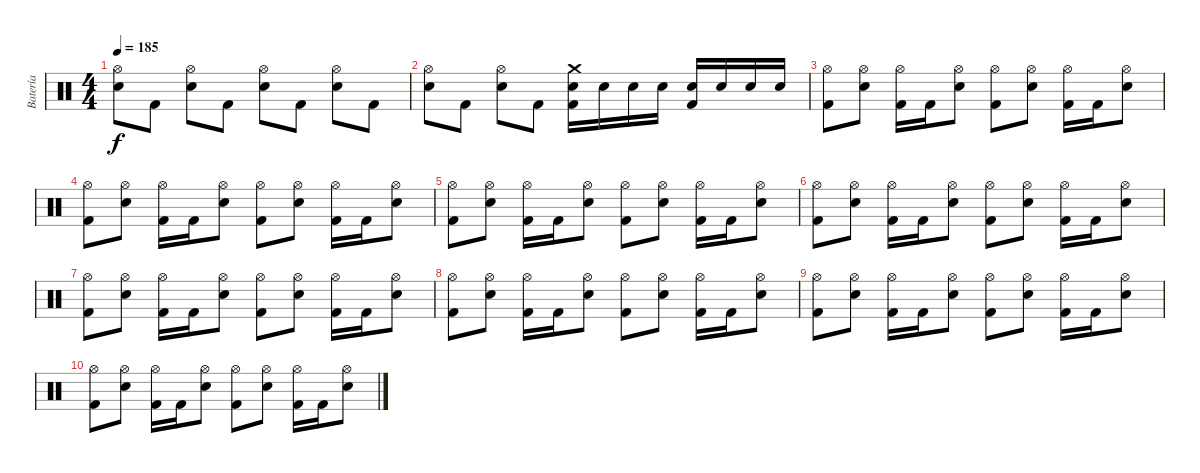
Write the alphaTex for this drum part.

\track ("Batería" "Batería") {instrument percussion}
\staff {score}
\articulation defaults
\ts (4 4)
\tempo 185
\clef neutral
\ks c
("Hi-Hat (open)" "Electric Snare (hit)").8{dy f} "Kick (hit) 2".8 ("Hi-Hat (open)" "Electric Snare (hit)").8 "Kick (hit) 2".8 ("Hi-Hat (open)" "Electric Snare (hit)").8 "Kick (hit) 2".8 ("Hi-Hat (open)" "Electric Snare (hit)").8 "Kick (hit) 2".8 |
("Hi-Hat (open)" "Electric Snare (hit)").8 "Kick (hit) 2".8 ("Hi-Hat (open)" "Electric Snare (hit)").8 "Kick (hit) 2".8 ("Crash medium (hit)" "Electric Snare (hit)" "Kick (hit) 2").16 "Electric Snare (hit)".16 "Electric Snare (hit)".16 "Electric Snare (hit)".16 ("Electric Snare (hit)" "Kick (hit) 2").16 "Electric Snare (hit)".16 "Electric Snare (hit)".16 "Electric Snare (hit)".16 |
("Hi-Hat (open)" "Kick (hit) 2").8 ("Hi-Hat (open)" "Electric Snare (hit)").8 ("Hi-Hat (open)" "Kick (hit) 2").16 "Kick (hit) 2".16 ("Hi-Hat (open)" "Electric Snare (hit)").8 ("Hi-Hat (open)" "Kick (hit) 2").8 ("Hi-Hat (open)" "Electric Snare (hit)").8 ("Hi-Hat (open)" "Kick (hit) 2").16 "Kick (hit) 2".16 ("Hi-Hat (open)" "Electric Snare (hit)").8 |
("Hi-Hat (open)" "Kick (hit) 2").8 ("Hi-Hat (open)" "Electric Snare (hit)").8 ("Hi-Hat (open)" "Kick (hit) 2").16 "Kick (hit) 2".16 ("Hi-Hat (open)" "Electric Snare (hit)").8 ("Hi-Hat (open)" "Kick (hit) 2").8 ("Hi-Hat (open)" "Electric Snare (hit)").8 ("Hi-Hat (open)" "Kick (hit) 2").16 "Kick (hit) 2".16 ("Hi-Hat (open)" "Electric Snare (hit)").8 |
("Hi-Hat (open)" "Kick (hit) 2").8 ("Hi-Hat (open)" "Electric Snare (hit)").8 ("Hi-Hat (open)" "Kick (hit) 2").16 "Kick (hit) 2".16 ("Hi-Hat (open)" "Electric Snare (hit)").8 ("Hi-Hat (open)" "Kick (hit) 2").8 ("Hi-Hat (open)" "Electric Snare (hit)").8 ("Hi-Hat (open)" "Kick (hit) 2").16 "Kick (hit) 2".16 ("Hi-Hat (open)" "Electric Snare (hit)").8 |
("Hi-Hat (open)" "Kick (hit) 2").8 ("Hi-Hat (open)" "Electric Snare (hit)").8 ("Hi-Hat (open)" "Kick (hit) 2").16 "Kick (hit) 2".16 ("Hi-Hat (open)" "Electric Snare (hit)").8 ("Hi-Hat (open)" "Kick (hit) 2").8 ("Hi-Hat (open)" "Electric Snare (hit)").8 ("Hi-Hat (open)" "Kick (hit) 2").16 "Kick (hit) 2".16 ("Hi-Hat (open)" "Electric Snare (hit)").8 |
("Hi-Hat (open)" "Kick (hit) 2").8 ("Hi-Hat (open)" "Electric Snare (hit)").8 ("Hi-Hat (open)" "Kick (hit) 2").16 "Kick (hit) 2".16 ("Hi-Hat (open)" "Electric Snare (hit)").8 ("Hi-Hat (open)" "Kick (hit) 2").8 ("Hi-Hat (open)" "Electric Snare (hit)").8 ("Hi-Hat (open)" "Kick (hit) 2").16 "Kick (hit) 2".16 ("Hi-Hat (open)" "Electric Snare (hit)").8 |
("Hi-Hat (open)" "Kick (hit) 2").8 ("Hi-Hat (open)" "Electric Snare (hit)").8 ("Hi-Hat (open)" "Kick (hit) 2").16 "Kick (hit) 2".16 ("Hi-Hat (open)" "Electric Snare (hit)").8 ("Hi-Hat (open)" "Kick (hit) 2").8 ("Hi-Hat (open)" "Electric Snare (hit)").8 ("Hi-Hat (open)" "Kick (hit) 2").16 "Kick (hit) 2".16 ("Hi-Hat (open)" "Electric Snare (hit)").8 |
("Hi-Hat (open)" "Kick (hit) 2").8 ("Hi-Hat (open)" "Electric Snare (hit)").8 ("Hi-Hat (open)" "Kick (hit) 2").16 "Kick (hit) 2".16 ("Hi-Hat (open)" "Electric Snare (hit)").8 ("Hi-Hat (open)" "Kick (hit) 2").8 ("Hi-Hat (open)" "Electric Snare (hit)").8 ("Hi-Hat (open)" "Kick (hit) 2").16 "Kick (hit) 2".16 ("Hi-Hat (open)" "Electric Snare (hit)").8 |
("Hi-Hat (open)" "Kick (hit) 2").8 ("Hi-Hat (open)" "Electric Snare (hit)").8 ("Hi-Hat (open)" "Kick (hit) 2").16 "Kick (hit) 2".16 ("Hi-Hat (open)" "Electric Snare (hit)").8 ("Hi-Hat (open)" "Kick (hit) 2").8 ("Hi-Hat (open)" "Electric Snare (hit)").8 ("Hi-Hat (open)" "Kick (hit) 2").16 "Kick (hit) 2".16 ("Hi-Hat (open)" "Electric Snare (hit)").8
